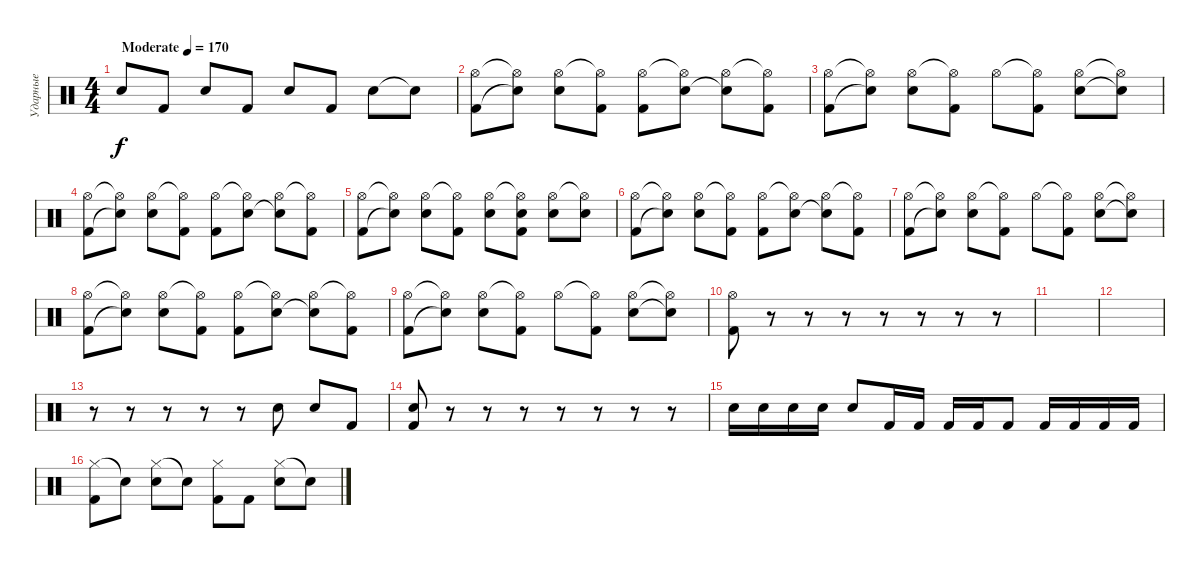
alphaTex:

\track ("Ударные" "Ударные") {instrument percussion}
\staff {score}
\articulation defaults
\ts (4 4)
\tempo (170 "Moderate")
\clef neutral
\ks c "Electric Snare (hit)".8{dy f} "Kick (hit) 2".8 "Electric Snare (hit)".8 "Kick (hit) 2".8 "Electric Snare (hit)".8 "Kick (hit) 2".8 "Electric Snare (hit)".8 "Snare (hit)"{t}.8
|
("Hi-Hat (open)" "Kick (hit) 2").8 ("Hi-Hat (open)"{t} "Snare (hit)"{t}).8 ("Hi-Hat (open)" "Electric Snare (hit)").8 ("Hi-Hat (open)"{t} "Kick (hit) 2").8 ("Hi-Hat (open)" "Kick (hit) 2").8 ("Hi-Hat (open)"{t} "Electric Snare (hit)").8 ("Hi-Hat (open)" "Snare (hit)"{t}).8 ("Hi-Hat (open)"{t} "Kick (hit) 2").8 |
("Hi-Hat (open)" "Kick (hit) 2").8 ("Hi-Hat (open)"{t} "Snare (hit)"{t}).8 ("Hi-Hat (open)" "Electric Snare (hit)").8 ("Hi-Hat (open)"{t} "Kick (hit) 2").8 "Hi-Hat (open)".8 ("Hi-Hat (open)"{t} "Kick (hit) 2").8 ("Hi-Hat (open)" "Electric Snare (hit)").8 ("Hi-Hat (open)"{t} "Snare (hit)"{t}).8 |
("Hi-Hat (open)" "Kick (hit) 2").8 ("Hi-Hat (open)"{t} "Snare (hit)"{t}).8 ("Hi-Hat (open)" "Electric Snare (hit)").8 ("Hi-Hat (open)"{t} "Kick (hit) 2").8 ("Hi-Hat (open)" "Kick (hit) 2").8 ("Hi-Hat (open)"{t} "Electric Snare (hit)").8 ("Hi-Hat (open)" "Snare (hit)"{t}).8 ("Hi-Hat (open)"{t} "Kick (hit) 2").8 |
("Hi-Hat (open)" "Kick (hit) 2").8 ("Hi-Hat (open)"{t} "Snare (hit)"{t}).8 ("Hi-Hat (open)" "Electric Snare (hit)").8 ("Hi-Hat (open)"{t} "Kick (hit) 2").8 ("Hi-Hat (open)" "Electric Snare (hit)").8 ("Hi-Hat (open)"{t} "Electric Snare (hit)" "Kick (hit) 2").8 ("Hi-Hat (open)" "Electric Snare (hit)").8 ("Hi-Hat (open)"{t} "Electric Snare (hit)").8 |
("Hi-Hat (open)" "Kick (hit) 2").8 ("Hi-Hat (open)"{t} "Snare (hit)"{t}).8 ("Hi-Hat (open)" "Electric Snare (hit)").8 ("Hi-Hat (open)"{t} "Kick (hit) 2").8 ("Hi-Hat (open)" "Kick (hit) 2").8 ("Hi-Hat (open)"{t} "Electric Snare (hit)").8 ("Hi-Hat (open)" "Snare (hit)"{t}).8 ("Hi-Hat (open)"{t} "Kick (hit) 2").8 |
("Hi-Hat (open)" "Kick (hit) 2").8 ("Hi-Hat (open)"{t} "Snare (hit)"{t}).8 ("Hi-Hat (open)" "Electric Snare (hit)").8 ("Hi-Hat (open)"{t} "Kick (hit) 2").8 "Hi-Hat (open)".8 ("Hi-Hat (open)"{t} "Kick (hit) 2").8 ("Hi-Hat (open)" "Electric Snare (hit)").8 ("Hi-Hat (open)"{t} "Snare (hit)"{t}).8 |
("Hi-Hat (open)" "Kick (hit) 2").8 ("Hi-Hat (open)"{t} "Snare (hit)"{t}).8 ("Hi-Hat (open)" "Electric Snare (hit)").8 ("Hi-Hat (open)"{t} "Kick (hit) 2").8 ("Hi-Hat (open)" "Kick (hit) 2").8 ("Hi-Hat (open)"{t} "Electric Snare (hit)").8 ("Hi-Hat (open)" "Snare (hit)"{t}).8 ("Hi-Hat (open)"{t} "Kick (hit) 2").8 |
("Hi-Hat (open)" "Kick (hit) 2").8 ("Hi-Hat (open)"{t} "Snare (hit)"{t}).8 ("Hi-Hat (open)" "Electric Snare (hit)").8 ("Hi-Hat (open)"{t} "Kick (hit) 2").8 "Hi-Hat (open)".8 ("Hi-Hat (open)"{t} "Kick (hit) 2").8 ("Hi-Hat (open)" "Electric Snare (hit)").8 ("Hi-Hat (open)"{t} "Snare (hit)"{t}).8 |
("Hi-Hat (open)" "Kick (hit) 2").8 r.8 r.8 r.8 r.8 r.8 r.8 r.8 |
|
|
r.8 r.8 r.8 r.8 r.8 "Electric Snare (hit)".8 "Electric Snare (hit)".8 "Kick (hit) 2".8 |
("Electric Snare (hit)" "Kick (hit) 2").8 r.8 r.8 r.8 r.8 r.8 r.8 r.8 |
"Electric Snare (hit)".16 "Electric Snare (hit)".16 "Electric Snare (hit)".16 "Electric Snare (hit)".16 "Electric Snare (hit)".8 "Kick (hit) 2".16 "Kick (hit) 2".16 "Kick (hit) 2".16 "Kick (hit) 2".16 "Kick (hit) 2".8 "Kick (hit) 2".16 "Kick (hit) 2".16 "Kick (hit) 2".16 "Kick (hit) 2".16 |
("Hi-Hat (closed)" "Kick (hit) 2").8 "Snare (hit)"{t}.8 ("Hi-Hat (closed)" "Electric Snare (hit)").8 "Snare (hit)"{t}.8 ("Hi-Hat (closed)" "Kick (hit) 2").8 "Kick (hit) 2".8 ("Hi-Hat (closed)" "Electric Snare (hit)").8 "Snare (hit)"{t}.8
